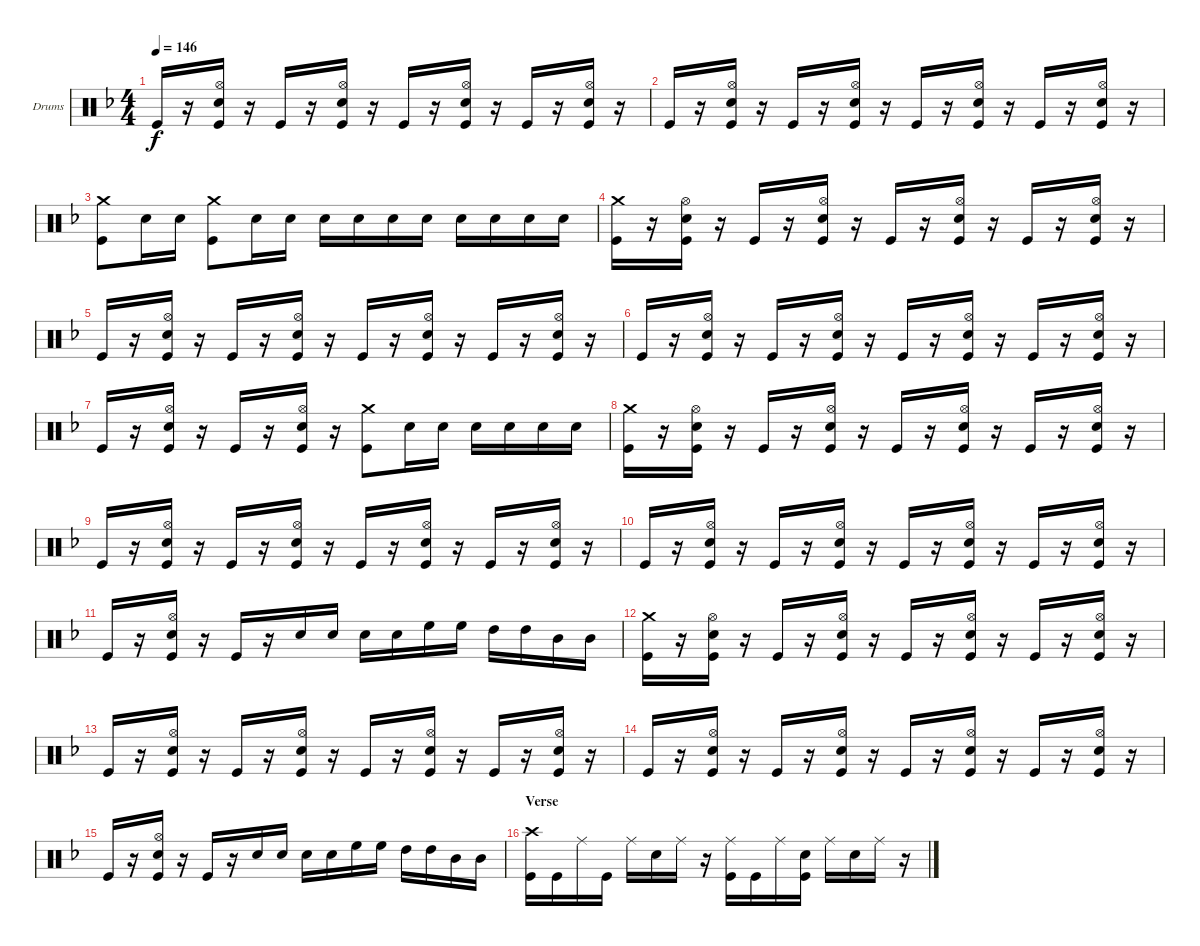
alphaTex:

\defaultSystemsLayout 4
\bracketExtendMode groupsimilarinstruments
\firstSystemTrackNameOrientation horizontal
\otherSystemsTrackNameOrientation horizontal
\track ("Gar Samuelson (Drums)" "Drums") {instrument percussion}
\staff {score}
\articulation defaults
\ts (4 4)
\tempo 146
\clef neutral
\scale
0.333333
\ks dminor "Kick (hit)".16{dy f}
r.16 ("Hi-Hat (open)" "Snare (hit) 2" "Kick (hit)").16 r.16 "Kick (hit)".16 r.16 ("Hi-Hat (open)" "Snare (hit) 2" "Kick (hit)").16 r.16 "Kick (hit)".16 r.16 ("Hi-Hat (open)" "Snare (hit) 2" "Kick (hit)").16 r.16 "Kick (hit)".16 r.16 ("Hi-Hat (open)" "Snare (hit) 2" "Kick (hit)").16 r.16 |
\scale
0.333333 "Kick (hit)".16 r.16 ("Hi-Hat (open)" "Snare (hit) 2" "Kick (hit)").16 r.16 "Kick (hit)".16 r.16 ("Hi-Hat (open)" "Snare (hit) 2" "Kick (hit)").16 r.16 "Kick (hit)".16 r.16 ("Hi-Hat (open)" "Snare (hit) 2" "Kick (hit)").16 r.16 "Kick (hit)".16 r.16 ("Hi-Hat (open)" "Snare (hit) 2" "Kick (hit)").16 r.16 |
\scale
0.333333 ("Crash medium (hit)" "Kick (hit)").8 "Snare (hit) 2".16 "Snare (hit) 2".16 ("Crash medium (hit)" "Kick (hit)").8 "Snare (hit) 2".16 "Snare (hit) 2".16 "Snare (hit) 2".16 "Snare (hit) 2".16 "Snare (hit) 2".16 "Snare (hit) 2".16 "Snare (hit) 2".16 "Snare (hit) 2".16 "Snare (hit) 2".16 "Snare (hit) 2".16 |
\scale
0.333333 ("Crash medium (hit)" "Kick (hit)").16 r.16 ("Hi-Hat (open)" "Snare (hit) 2" "Kick (hit)").16 r.16 "Kick (hit)".16 r.16 ("Hi-Hat (open)" "Snare (hit) 2" "Kick (hit)").16 r.16 "Kick (hit)".16 r.16 ("Hi-Hat (open)" "Snare (hit) 2" "Kick (hit)").16 r.16 "Kick (hit)".16 r.16 ("Hi-Hat (open)" "Snare (hit) 2" "Kick (hit)").16 r.16 |
\scale
0.333333 "Kick (hit)".16 r.16 ("Hi-Hat (open)" "Snare (hit) 2" "Kick (hit)").16 r.16 "Kick (hit)".16 r.16 ("Hi-Hat (open)" "Snare (hit) 2" "Kick (hit)").16 r.16 "Kick (hit)".16 r.16 ("Hi-Hat (open)" "Snare (hit) 2" "Kick (hit)").16 r.16 "Kick (hit)".16 r.16 ("Hi-Hat (open)" "Snare (hit) 2" "Kick (hit)").16 r.16 |
\scale
0.333333 "Kick (hit)".16 r.16 ("Hi-Hat (open)" "Snare (hit) 2" "Kick (hit)").16 r.16 "Kick (hit)".16 r.16 ("Hi-Hat (open)" "Snare (hit) 2" "Kick (hit)").16 r.16 "Kick (hit)".16 r.16 ("Hi-Hat (open)" "Snare (hit) 2" "Kick (hit)").16 r.16 "Kick (hit)".16 r.16 ("Hi-Hat (open)" "Snare (hit) 2" "Kick (hit)").16 r.16 |
\scale
0.333333 "Kick (hit)".16 r.16 ("Hi-Hat (open)" "Snare (hit) 2" "Kick (hit)").16 r.16 "Kick (hit)".16 r.16 ("Hi-Hat (open)" "Snare (hit) 2" "Kick (hit)").16 r.16 ("Crash medium (hit)" "Kick (hit)").8 "Snare (hit) 2".16 "Snare (hit) 2".16 "Snare (hit) 2".16 "Snare (hit) 2".16 "Snare (hit) 2".16 "Snare (hit) 2".16 |
\scale
0.333333 ("Crash medium (hit)" "Kick (hit)").16 r.16 ("Hi-Hat (open)" "Snare (hit) 2" "Kick (hit)").16 r.16 "Kick (hit)".16 r.16 ("Hi-Hat (open)" "Snare (hit) 2" "Kick (hit)").16 r.16 "Kick (hit)".16 r.16 ("Hi-Hat (open)" "Snare (hit) 2" "Kick (hit)").16 r.16 "Kick (hit)".16 r.16 ("Hi-Hat (open)" "Snare (hit) 2" "Kick (hit)").16 r.16 |
\scale
0.333333 "Kick (hit)".16 r.16 ("Hi-Hat (open)" "Snare (hit) 2" "Kick (hit)").16 r.16 "Kick (hit)".16 r.16 ("Hi-Hat (open)" "Snare (hit) 2" "Kick (hit)").16 r.16 "Kick (hit)".16 r.16 ("Hi-Hat (open)" "Snare (hit) 2" "Kick (hit)").16 r.16 "Kick (hit)".16 r.16 ("Hi-Hat (open)" "Snare (hit) 2" "Kick (hit)").16 r.16 |
\scale
0.333333 "Kick (hit)".16 r.16 ("Hi-Hat (open)" "Snare (hit) 2" "Kick (hit)").16 r.16 "Kick (hit)".16 r.16 ("Hi-Hat (open)" "Snare (hit) 2" "Kick (hit)").16 r.16 "Kick (hit)".16 r.16 ("Hi-Hat (open)" "Snare (hit) 2" "Kick (hit)").16 r.16 "Kick (hit)".16 r.16 ("Hi-Hat (open)" "Snare (hit) 2" "Kick (hit)").16 r.16 |
\scale
0.333333 "Kick (hit)".16 r.16 ("Hi-Hat (open)" "Snare (hit) 2" "Kick (hit)").16 r.16 "Kick (hit)".16 r.16 "Snare (hit) 2".16 "Snare (hit) 2".16 "Snare (hit) 2".16 "Snare (hit) 2".16 "High Floor Tom (hit)".16 "High Floor Tom (hit)".16 "High Tom (hit)".16 "High Tom (hit)".16 "Mid Tom (hit)".16 "Mid Tom (hit)".16 |
\scale
0.333333 ("Crash medium (hit)" "Kick (hit)").16 r.16 ("Hi-Hat (open)" "Snare (hit) 2" "Kick (hit)").16 r.16 "Kick (hit)".16 r.16 ("Hi-Hat (open)" "Snare (hit) 2" "Kick (hit)").16 r.16 "Kick (hit)".16 r.16 ("Hi-Hat (open)" "Snare (hit) 2" "Kick (hit)").16 r.16 "Kick (hit)".16 r.16 ("Hi-Hat (open)" "Snare (hit) 2" "Kick (hit)").16 r.16 |
\scale
0.333333 "Kick (hit)".16 r.16 ("Hi-Hat (open)" "Snare (hit) 2" "Kick (hit)").16 r.16 "Kick (hit)".16 r.16 ("Hi-Hat (open)" "Snare (hit) 2" "Kick (hit)").16 r.16 "Kick (hit)".16 r.16 ("Hi-Hat (open)" "Snare (hit) 2" "Kick (hit)").16 r.16 "Kick (hit)".16 r.16 ("Hi-Hat (open)" "Snare (hit) 2" "Kick (hit)").16 r.16 |
\scale
0.333333 "Kick (hit)".16 r.16 ("Hi-Hat (open)" "Snare (hit) 2" "Kick (hit)").16 r.16 "Kick (hit)".16 r.16 ("Hi-Hat (open)" "Snare (hit) 2" "Kick (hit)").16 r.16 "Kick (hit)".16 r.16 ("Hi-Hat (open)" "Snare (hit) 2" "Kick (hit)").16 r.16 "Kick (hit)".16 r.16 ("Hi-Hat (open)" "Snare (hit) 2" "Kick (hit)").16 r.16 |
\scale
0.333333 "Kick (hit)".16 r.16 ("Hi-Hat (open)" "Snare (hit) 2" "Kick (hit)").16 r.16 "Kick (hit)".16 r.16 "Snare (hit) 2".16 "Snare (hit) 2".16 "Snare (hit) 2".16 "Snare (hit) 2".16 "High Floor Tom (hit)".16 "High Floor Tom (hit)".16 "High Tom (hit)".16 "High Tom (hit)".16 "Mid Tom (hit)".16 "Mid Tom (hit)".16 |
\section ("" "Verse")
\scale
0.333333 ("Crash high (hit)" "Kick (hit)").16 "Kick (hit)".16 "Ride (middle)".16 "Kick (hit)".16 "Ride (middle)".16 "Snare (hit) 2".16 "Ride (middle)".16 r.16 ("Ride (middle)" "Kick (hit)").16 "Kick (hit)".16 "Ride (middle)".16 ("Snare (hit) 2" "Kick (hit)").16 "Ride (middle)".16 "Snare (hit) 2".16 "Ride (middle)".16 r.16
